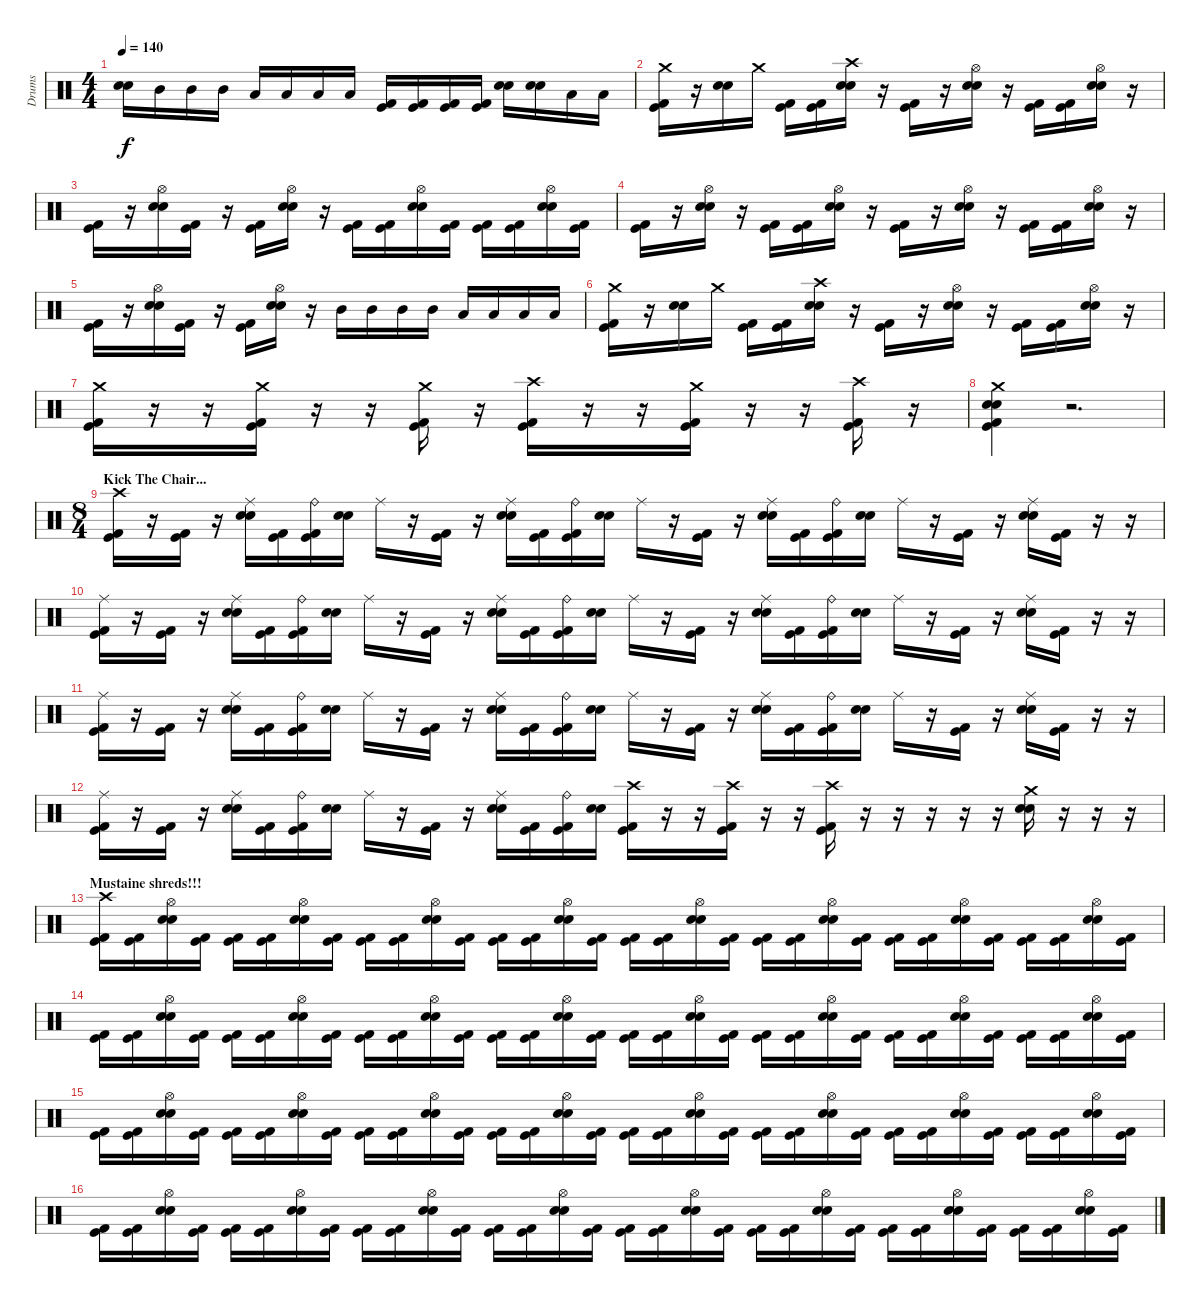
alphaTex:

\track ("Drums" "Drums") {instrument percussion}
\staff {score}
\articulation defaults
\ts (4 4)
\tempo 140
\clef neutral
\ks c
("Snare (hit) 2" "Electric Snare (hit)").16{dy f} "Mid Tom (hit)".16 "Mid Tom (hit)".16 "Mid Tom (hit)".16 "Low Tom (hit)".16 "Low Tom (hit)".16 "Low Tom (hit)".16 "Low Tom (hit)".16 ("Kick (hit) 2" "Kick (hit)").16 ("Kick (hit) 2" "Kick (hit)").16 ("Kick (hit) 2" "Kick (hit)").16 ("Kick (hit) 2" "Kick (hit)").16 ("Snare (hit) 2" "Electric Snare (hit)").16 ("Snare (hit) 2" "Electric Snare (hit)").16 "Low Tom (hit)".16 "Low Tom (hit)".16 |
("Crash medium (hit)" "Kick (hit) 2" "Kick (hit)").16 r.16 ("Snare (hit) 2" "Electric Snare (hit)").16 "Crash medium (hit)".16 ("Kick (hit) 2" "Kick (hit)").16 ("Kick (hit) 2" "Kick (hit)").16 ("Crash high (hit)" "Snare (hit) 2" "Electric Snare (hit)").16 r.16 ("Kick (hit) 2" "Kick (hit)").16 r.16 ("Hi-Hat (open)" "Snare (hit) 2" "Electric Snare (hit)").16 r.16 ("Kick (hit) 2" "Kick (hit)").16 ("Kick (hit) 2" "Kick (hit)").16 ("Hi-Hat (open)" "Snare (hit) 2" "Electric Snare (hit)").16 r.16 |
("Kick (hit) 2" "Kick (hit)").16 r.16 ("Hi-Hat (open)" "Snare (hit) 2" "Electric Snare (hit)").16 ("Kick (hit) 2" "Kick (hit)").16 r.16 ("Kick (hit) 2" "Kick (hit)").16 ("Hi-Hat (open)" "Snare (hit) 2" "Electric Snare (hit)").16 r.16 ("Kick (hit) 2" "Kick (hit)").16 ("Kick (hit) 2" "Kick (hit)").16 ("Hi-Hat (open)" "Snare (hit) 2" "Electric Snare (hit)").16 ("Kick (hit) 2" "Kick (hit)").16 ("Kick (hit) 2" "Kick (hit)").16 ("Kick (hit) 2" "Kick (hit)").16 ("Hi-Hat (open)" "Snare (hit) 2" "Electric Snare (hit)").16 ("Kick (hit) 2" "Kick (hit)").16 |
("Kick (hit) 2" "Kick (hit)").16 r.16 ("Hi-Hat (open)" "Snare (hit) 2" "Electric Snare (hit)").16 r.16 ("Kick (hit) 2" "Kick (hit)").16 ("Kick (hit) 2" "Kick (hit)").16 ("Hi-Hat (open)" "Snare (hit) 2" "Electric Snare (hit)").16 r.16 ("Kick (hit) 2" "Kick (hit)").16 r.16 ("Hi-Hat (open)" "Snare (hit) 2" "Electric Snare (hit)").16 r.16 ("Kick (hit) 2" "Kick (hit)").16 ("Kick (hit) 2" "Kick (hit)").16 ("Hi-Hat (open)" "Snare (hit) 2" "Electric Snare (hit)").16 r.16 |
("Kick (hit) 2" "Kick (hit)").16 r.16 ("Hi-Hat (open)" "Snare (hit) 2" "Electric Snare (hit)").16 ("Kick (hit) 2" "Kick (hit)").16 r.16 ("Kick (hit) 2" "Kick (hit)").16 ("Hi-Hat (open)" "Snare (hit) 2" "Electric Snare (hit)").16 r.16 "Mid Tom (hit)".16 "Mid Tom (hit)".16 "Mid Tom (hit)".16 "Mid Tom (hit)".16 "Low Tom (hit)".16 "Low Tom (hit)".16 "Low Tom (hit)".16 "Low Tom (hit)".16 |
("Crash medium (hit)" "Kick (hit) 2" "Kick (hit)").16 r.16 ("Snare (hit) 2" "Electric Snare (hit)").16 "Crash medium (hit)".16 ("Kick (hit) 2" "Kick (hit)").16 ("Kick (hit) 2" "Kick (hit)").16 ("Crash high (hit)" "Snare (hit) 2" "Electric Snare (hit)").16 r.16 ("Kick (hit) 2" "Kick (hit)").16 r.16 ("Hi-Hat (open)" "Snare (hit) 2" "Electric Snare (hit)").16 r.16 ("Kick (hit) 2" "Kick (hit)").16 ("Kick (hit) 2" "Kick (hit)").16 ("Hi-Hat (open)" "Snare (hit) 2" "Electric Snare (hit)").16 r.16 |
("Crash medium (hit)" "Kick (hit) 2" "Kick (hit)").16 r.16 r.16 ("Crash medium (hit)" "Kick (hit) 2" "Kick (hit)").16 r.16 r.16 ("Crash medium (hit)" "Kick (hit) 2" "Kick (hit)").16 r.16 ("Crash high (hit)" "Kick (hit) 2" "Kick (hit)").16 r.16 r.16 ("Crash medium (hit)" "Kick (hit) 2" "Kick (hit)").16 r.16 r.16 ("Crash high (hit)" "Kick (hit) 2" "Kick (hit)").16 r.16 |
("Crash medium (hit)" "Snare (hit) 2" "Electric Snare (hit)" "Kick (hit) 2" "Kick (hit)").4 r.2{d} |
\ts (8 4)
\section ("" "Kick The Chair...")
("Crash high (hit)" "Kick (hit) 2" "Kick (hit)").16 r.16 ("Kick (hit) 2" "Kick (hit)").16 r.16 ("Ride (middle)" "Snare (hit) 2" "Electric Snare (hit)").16 ("Kick (hit) 2" "Kick (hit)").16 ("Ride (bell)" "Kick (hit) 2" "Kick (hit)").16 ("Snare (hit) 2" "Electric Snare (hit)").16 "Ride (middle)".16 r.16 ("Kick (hit) 2" "Kick (hit)").16 r.16 ("Ride (middle)" "Snare (hit) 2" "Electric Snare (hit)").16 ("Kick (hit) 2" "Kick (hit)").16 ("Ride (bell)" "Kick (hit) 2" "Kick (hit)").16 ("Snare (hit) 2" "Electric Snare (hit)").16 "Ride (middle)".16 r.16 ("Kick (hit) 2" "Kick (hit)").16 r.16 ("Ride (middle)" "Snare (hit) 2" "Electric Snare (hit)").16 ("Kick (hit) 2" "Kick (hit)").16 ("Ride (bell)" "Kick (hit) 2" "Kick (hit)").16 ("Snare (hit) 2" "Electric Snare (hit)").16 "Ride (middle)".16 r.16 ("Kick (hit) 2" "Kick (hit)").16 r.16 ("Ride (middle)" "Snare (hit) 2" "Electric Snare (hit)").16 ("Kick (hit) 2" "Kick (hit)").16 r.16 r.16 |
("Ride (middle)" "Kick (hit) 2" "Kick (hit)").16 r.16 ("Kick (hit) 2" "Kick (hit)").16 r.16 ("Ride (middle)" "Snare (hit) 2" "Electric Snare (hit)").16 ("Kick (hit) 2" "Kick (hit)").16 ("Ride (bell)" "Kick (hit) 2" "Kick (hit)").16 ("Snare (hit) 2" "Electric Snare (hit)").16 "Ride (middle)".16 r.16 ("Kick (hit) 2" "Kick (hit)").16 r.16 ("Ride (middle)" "Snare (hit) 2" "Electric Snare (hit)").16 ("Kick (hit) 2" "Kick (hit)").16 ("Ride (bell)" "Kick (hit) 2" "Kick (hit)").16 ("Snare (hit) 2" "Electric Snare (hit)").16 "Ride (middle)".16 r.16 ("Kick (hit) 2" "Kick (hit)").16 r.16 ("Ride (middle)" "Snare (hit) 2" "Electric Snare (hit)").16 ("Kick (hit) 2" "Kick (hit)").16 ("Ride (bell)" "Kick (hit) 2" "Kick (hit)").16 ("Snare (hit) 2" "Electric Snare (hit)").16 "Ride (middle)".16 r.16 ("Kick (hit) 2" "Kick (hit)").16 r.16 ("Ride (middle)" "Snare (hit) 2" "Electric Snare (hit)").16 ("Kick (hit) 2" "Kick (hit)").16 r.16 r.16 |
("Ride (middle)" "Kick (hit) 2" "Kick (hit)").16 r.16 ("Kick (hit) 2" "Kick (hit)").16 r.16 ("Ride (middle)" "Snare (hit) 2" "Electric Snare (hit)").16 ("Kick (hit) 2" "Kick (hit)").16 ("Ride (bell)" "Kick (hit) 2" "Kick (hit)").16 ("Snare (hit) 2" "Electric Snare (hit)").16 "Ride (middle)".16 r.16 ("Kick (hit) 2" "Kick (hit)").16 r.16 ("Ride (middle)" "Snare (hit) 2" "Electric Snare (hit)").16 ("Kick (hit) 2" "Kick (hit)").16 ("Ride (bell)" "Kick (hit) 2" "Kick (hit)").16 ("Snare (hit) 2" "Electric Snare (hit)").16 "Ride (middle)".16 r.16 ("Kick (hit) 2" "Kick (hit)").16 r.16 ("Ride (middle)" "Snare (hit) 2" "Electric Snare (hit)").16 ("Kick (hit) 2" "Kick (hit)").16 ("Ride (bell)" "Kick (hit) 2" "Kick (hit)").16 ("Snare (hit) 2" "Electric Snare (hit)").16 "Ride (middle)".16 r.16 ("Kick (hit) 2" "Kick (hit)").16 r.16 ("Ride (middle)" "Snare (hit) 2" "Electric Snare (hit)").16 ("Kick (hit) 2" "Kick (hit)").16 r.16 r.16 |
("Ride (middle)" "Kick (hit) 2" "Kick (hit)").16 r.16 ("Kick (hit) 2" "Kick (hit)").16 r.16 ("Ride (middle)" "Snare (hit) 2" "Electric Snare (hit)").16 ("Kick (hit) 2" "Kick (hit)").16 ("Ride (bell)" "Kick (hit) 2" "Kick (hit)").16 ("Snare (hit) 2" "Electric Snare (hit)").16 "Ride (middle)".16 r.16 ("Kick (hit) 2" "Kick (hit)").16 r.16 ("Ride (middle)" "Snare (hit) 2" "Electric Snare (hit)").16 ("Kick (hit) 2" "Kick (hit)").16 ("Ride (bell)" "Kick (hit) 2" "Kick (hit)").16 ("Snare (hit) 2" "Electric Snare (hit)").16 ("Crash high (hit)" "Kick (hit)" "Kick (hit) 2").16 r.16 r.16 ("Crash high (hit)" "Kick (hit) 2" "Kick (hit)").16 r.16 r.16 ("Crash high (hit)" "Kick (hit) 2" "Kick (hit)").16 r.16 r.16 r.16 r.16 r.16 ("Crash medium (hit)" "Snare (hit) 2" "Electric Snare (hit)").16 r.16 r.16 r.16 |
\section ("" "Mustaine shreds!!!")
("Crash high (hit)" "Kick (hit) 2" "Kick (hit)").16 ("Kick (hit) 2" "Kick (hit)").16 ("Hi-Hat (open)" "Snare (hit) 2" "Electric Snare (hit)").16 ("Kick (hit) 2" "Kick (hit)").16 ("Kick (hit) 2" "Kick (hit)").16 ("Kick (hit) 2" "Kick (hit)").16 ("Hi-Hat (open)" "Snare (hit) 2" "Electric Snare (hit)").16 ("Kick (hit) 2" "Kick (hit)").16 ("Kick (hit) 2" "Kick (hit)").16 ("Kick (hit) 2" "Kick (hit)").16 ("Hi-Hat (open)" "Snare (hit) 2" "Electric Snare (hit)").16 ("Kick (hit) 2" "Kick (hit)").16 ("Kick (hit) 2" "Kick (hit)").16 ("Kick (hit) 2" "Kick (hit)").16 ("Hi-Hat (open)" "Snare (hit) 2" "Electric Snare (hit)").16 ("Kick (hit) 2" "Kick (hit)").16 ("Kick (hit) 2" "Kick (hit)").16 ("Kick (hit) 2" "Kick (hit)").16 ("Hi-Hat (open)" "Snare (hit) 2" "Electric Snare (hit)").16 ("Kick (hit) 2" "Kick (hit)").16 ("Kick (hit) 2" "Kick (hit)").16 ("Kick (hit) 2" "Kick (hit)").16 ("Hi-Hat (open)" "Snare (hit) 2" "Electric Snare (hit)").16 ("Kick (hit) 2" "Kick (hit)").16 ("Kick (hit) 2" "Kick (hit)").16 ("Kick (hit) 2" "Kick (hit)").16 ("Hi-Hat (open)" "Snare (hit) 2" "Electric Snare (hit)").16 ("Kick (hit) 2" "Kick (hit)").16 ("Kick (hit) 2" "Kick (hit)").16 ("Kick (hit) 2" "Kick (hit)").16 ("Hi-Hat (open)" "Snare (hit) 2" "Electric Snare (hit)").16 ("Kick (hit) 2" "Kick (hit)").16 |
("Kick (hit) 2" "Kick (hit)").16 ("Kick (hit) 2" "Kick (hit)").16 ("Hi-Hat (open)" "Snare (hit) 2" "Electric Snare (hit)").16 ("Kick (hit) 2" "Kick (hit)").16 ("Kick (hit) 2" "Kick (hit)").16 ("Kick (hit) 2" "Kick (hit)").16 ("Hi-Hat (open)" "Snare (hit) 2" "Electric Snare (hit)").16 ("Kick (hit) 2" "Kick (hit)").16 ("Kick (hit) 2" "Kick (hit)").16 ("Kick (hit) 2" "Kick (hit)").16 ("Hi-Hat (open)" "Snare (hit) 2" "Electric Snare (hit)").16 ("Kick (hit) 2" "Kick (hit)").16 ("Kick (hit) 2" "Kick (hit)").16 ("Kick (hit) 2" "Kick (hit)").16 ("Hi-Hat (open)" "Snare (hit) 2" "Electric Snare (hit)").16 ("Kick (hit) 2" "Kick (hit)").16 ("Kick (hit) 2" "Kick (hit)").16 ("Kick (hit) 2" "Kick (hit)").16 ("Hi-Hat (open)" "Snare (hit) 2" "Electric Snare (hit)").16 ("Kick (hit) 2" "Kick (hit)").16 ("Kick (hit) 2" "Kick (hit)").16 ("Kick (hit) 2" "Kick (hit)").16 ("Hi-Hat (open)" "Snare (hit) 2" "Electric Snare (hit)").16 ("Kick (hit) 2" "Kick (hit)").16 ("Kick (hit) 2" "Kick (hit)").16 ("Kick (hit) 2" "Kick (hit)").16 ("Hi-Hat (open)" "Snare (hit) 2" "Electric Snare (hit)").16 ("Kick (hit) 2" "Kick (hit)").16 ("Kick (hit) 2" "Kick (hit)").16 ("Kick (hit) 2" "Kick (hit)").16 ("Hi-Hat (open)" "Snare (hit) 2" "Electric Snare (hit)").16 ("Kick (hit) 2" "Kick (hit)").16 |
("Kick (hit) 2" "Kick (hit)").16 ("Kick (hit) 2" "Kick (hit)").16 ("Hi-Hat (open)" "Snare (hit) 2" "Electric Snare (hit)").16 ("Kick (hit) 2" "Kick (hit)").16 ("Kick (hit) 2" "Kick (hit)").16 ("Kick (hit) 2" "Kick (hit)").16 ("Hi-Hat (open)" "Snare (hit) 2" "Electric Snare (hit)").16 ("Kick (hit) 2" "Kick (hit)").16 ("Kick (hit) 2" "Kick (hit)").16 ("Kick (hit) 2" "Kick (hit)").16 ("Hi-Hat (open)" "Snare (hit) 2" "Electric Snare (hit)").16 ("Kick (hit) 2" "Kick (hit)").16 ("Kick (hit) 2" "Kick (hit)").16 ("Kick (hit) 2" "Kick (hit)").16 ("Hi-Hat (open)" "Snare (hit) 2" "Electric Snare (hit)").16 ("Kick (hit) 2" "Kick (hit)").16 ("Kick (hit) 2" "Kick (hit)").16 ("Kick (hit) 2" "Kick (hit)").16 ("Hi-Hat (open)" "Snare (hit) 2" "Electric Snare (hit)").16 ("Kick (hit) 2" "Kick (hit)").16 ("Kick (hit) 2" "Kick (hit)").16 ("Kick (hit) 2" "Kick (hit)").16 ("Hi-Hat (open)" "Snare (hit) 2" "Electric Snare (hit)").16 ("Kick (hit) 2" "Kick (hit)").16 ("Kick (hit) 2" "Kick (hit)").16 ("Kick (hit) 2" "Kick (hit)").16 ("Hi-Hat (open)" "Snare (hit) 2" "Electric Snare (hit)").16 ("Kick (hit) 2" "Kick (hit)").16 ("Kick (hit) 2" "Kick (hit)").16 ("Kick (hit) 2" "Kick (hit)").16 ("Hi-Hat (open)" "Snare (hit) 2" "Electric Snare (hit)").16 ("Kick (hit) 2" "Kick (hit)").16 |
("Kick (hit) 2" "Kick (hit)").16 ("Kick (hit) 2" "Kick (hit)").16 ("Hi-Hat (open)" "Snare (hit) 2" "Electric Snare (hit)").16 ("Kick (hit) 2" "Kick (hit)").16 ("Kick (hit) 2" "Kick (hit)").16 ("Kick (hit) 2" "Kick (hit)").16 ("Hi-Hat (open)" "Snare (hit) 2" "Electric Snare (hit)").16 ("Kick (hit) 2" "Kick (hit)").16 ("Kick (hit) 2" "Kick (hit)").16 ("Kick (hit) 2" "Kick (hit)").16 ("Hi-Hat (open)" "Snare (hit) 2" "Electric Snare (hit)").16 ("Kick (hit) 2" "Kick (hit)").16 ("Kick (hit) 2" "Kick (hit)").16 ("Kick (hit) 2" "Kick (hit)").16 ("Hi-Hat (open)" "Snare (hit) 2" "Electric Snare (hit)").16 ("Kick (hit) 2" "Kick (hit)").16 ("Kick (hit) 2" "Kick (hit)").16 ("Kick (hit) 2" "Kick (hit)").16 ("Hi-Hat (open)" "Snare (hit) 2" "Electric Snare (hit)").16 ("Kick (hit) 2" "Kick (hit)").16 ("Kick (hit) 2" "Kick (hit)").16 ("Kick (hit) 2" "Kick (hit)").16 ("Hi-Hat (open)" "Snare (hit) 2" "Electric Snare (hit)").16 ("Kick (hit) 2" "Kick (hit)").16 ("Kick (hit) 2" "Kick (hit)").16 ("Kick (hit) 2" "Kick (hit)").16 ("Hi-Hat (open)" "Snare (hit) 2" "Electric Snare (hit)").16 ("Kick (hit) 2" "Kick (hit)").16 ("Kick (hit) 2" "Kick (hit)").16 ("Kick (hit) 2" "Kick (hit)").16 ("Hi-Hat (open)" "Snare (hit) 2" "Electric Snare (hit)").16 ("Kick (hit) 2" "Kick (hit)").16
